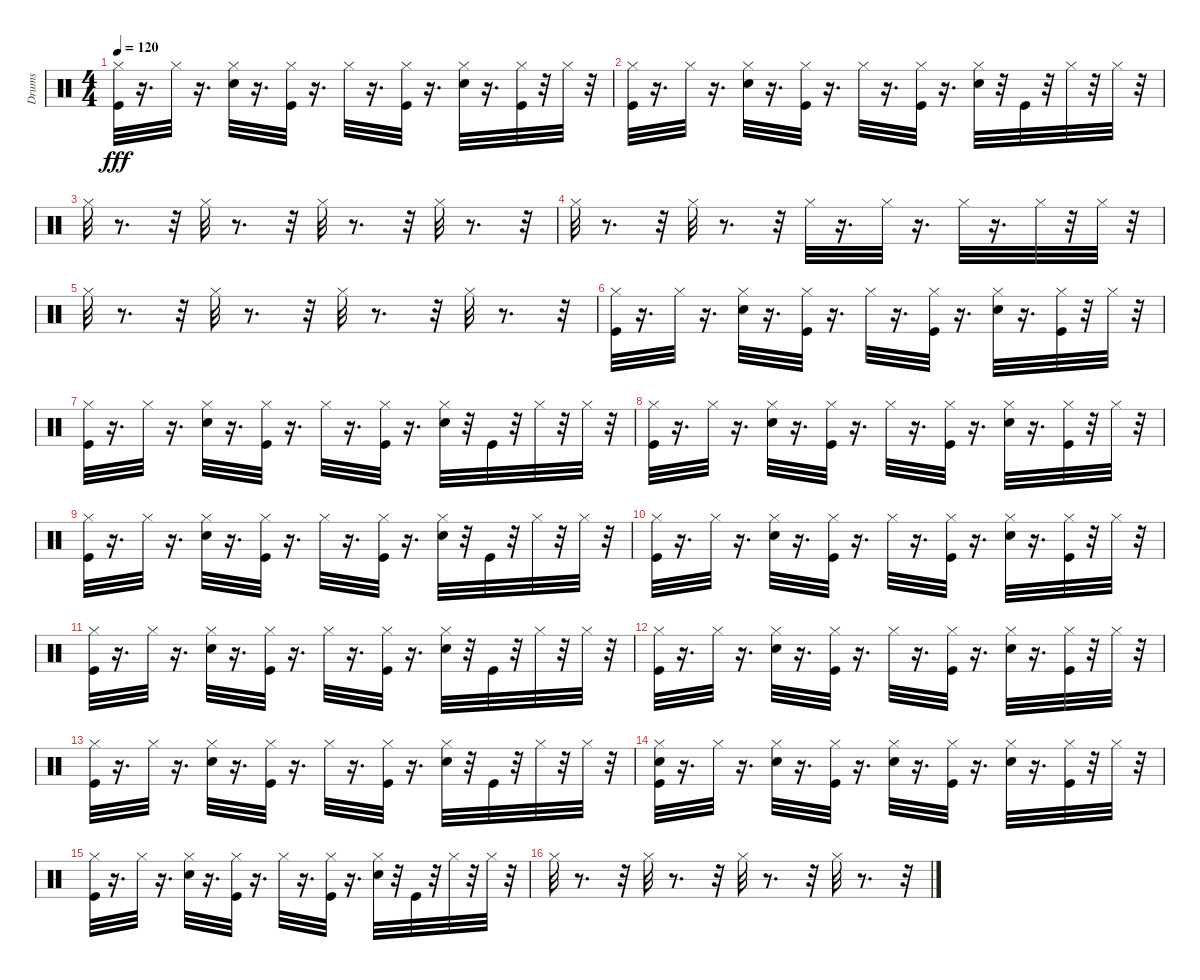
\track ("Drums" "Drums") {solo instrument percussion}
\staff {score}
\articulation defaults
\ts (4 4)
\tempo 120
\clef neutral
\ks c
("Kick (hit)" "Hi-Hat (closed)").32{dy fff} r.16{d} "Hi-Hat (closed)".32 r.16{d} ("Snare (hit) 2" "Hi-Hat (closed)").32 r.16{d} ("Kick (hit)" "Hi-Hat (closed)").32 r.16{d} "Hi-Hat (closed)".32 r.16{d} ("Kick (hit)" "Hi-Hat (closed)").32 r.16{d} ("Snare (hit) 2" "Hi-Hat (closed)").32 r.16{d} ("Kick (hit)" "Hi-Hat (closed)").32 r.32 "Hi-Hat (closed)".32 r.32 |
("Kick (hit)" "Hi-Hat (closed)").32 r.16{d} "Hi-Hat (closed)".32 r.16{d} ("Snare (hit) 2" "Hi-Hat (closed)").32 r.16{d} ("Kick (hit)" "Hi-Hat (closed)").32 r.16{d} "Hi-Hat (closed)".32 r.16{d} ("Kick (hit)" "Hi-Hat (closed)").32 r.16{d} ("Snare (hit) 2" "Hi-Hat (closed)").32 r.32 "Kick (hit)".32 r.32 "Hi-Hat (closed)".32 r.32 "Hi-Hat (closed)".32 r.32 |
"Hi-Hat (closed)".32 r.8{d} r.32 "Hi-Hat (closed)".32 r.8{d} r.32 "Hi-Hat (closed)".32 r.8{d} r.32 "Hi-Hat (closed)".32 r.8{d} r.32 |
"Hi-Hat (closed)".32 r.8{d} r.32 "Hi-Hat (closed)".32 r.8{d} r.32 "Hi-Hat (closed)".32 r.16{d} "Hi-Hat (closed)".32 r.16{d} "Hi-Hat (closed)".32 r.16{d} "Hi-Hat (closed)".32 r.32 "Hi-Hat (closed)".32 r.32 |
"Hi-Hat (closed)".32 r.8{d} r.32 "Hi-Hat (closed)".32 r.8{d} r.32 "Hi-Hat (closed)".32 r.8{d} r.32 "Hi-Hat (closed)".32 r.8{d} r.32 |
("Kick (hit)" "Hi-Hat (closed)").32 r.16{d} "Hi-Hat (closed)".32 r.16{d} ("Snare (hit) 2" "Hi-Hat (closed)").32 r.16{d} ("Kick (hit)" "Hi-Hat (closed)").32 r.16{d} "Hi-Hat (closed)".32 r.16{d} ("Kick (hit)" "Hi-Hat (closed)").32 r.16{d} ("Snare (hit) 2" "Hi-Hat (closed)").32 r.16{d} ("Kick (hit)" "Hi-Hat (closed)").32 r.32 "Hi-Hat (closed)".32 r.32 |
("Kick (hit)" "Hi-Hat (closed)").32 r.16{d} "Hi-Hat (closed)".32 r.16{d} ("Snare (hit) 2" "Hi-Hat (closed)").32 r.16{d} ("Kick (hit)" "Hi-Hat (closed)").32 r.16{d} "Hi-Hat (closed)".32 r.16{d} ("Kick (hit)" "Hi-Hat (closed)").32 r.16{d} ("Snare (hit) 2" "Hi-Hat (closed)").32 r.32 "Kick (hit)".32 r.32 "Hi-Hat (closed)".32 r.32 "Hi-Hat (closed)".32 r.32 |
("Kick (hit)" "Hi-Hat (closed)").32 r.16{d} "Hi-Hat (closed)".32 r.16{d} ("Snare (hit) 2" "Hi-Hat (closed)").32 r.16{d} ("Kick (hit)" "Hi-Hat (closed)").32 r.16{d} "Hi-Hat (closed)".32 r.16{d} ("Kick (hit)" "Hi-Hat (closed)").32 r.16{d} ("Snare (hit) 2" "Hi-Hat (closed)").32 r.16{d} ("Kick (hit)" "Hi-Hat (closed)").32 r.32 "Hi-Hat (closed)".32 r.32 |
("Kick (hit)" "Hi-Hat (closed)").32 r.16{d} "Hi-Hat (closed)".32 r.16{d} ("Snare (hit) 2" "Hi-Hat (closed)").32 r.16{d} ("Kick (hit)" "Hi-Hat (closed)").32 r.16{d} "Hi-Hat (closed)".32 r.16{d} ("Kick (hit)" "Hi-Hat (closed)").32 r.16{d} ("Snare (hit) 2" "Hi-Hat (closed)").32 r.32 "Kick (hit)".32 r.32 "Hi-Hat (closed)".32 r.32 "Hi-Hat (closed)".32 r.32 |
("Kick (hit)" "Hi-Hat (closed)").32 r.16{d} "Hi-Hat (closed)".32 r.16{d} ("Snare (hit) 2" "Hi-Hat (closed)").32 r.16{d} ("Kick (hit)" "Hi-Hat (closed)").32 r.16{d} "Hi-Hat (closed)".32 r.16{d} ("Kick (hit)" "Hi-Hat (closed)").32 r.16{d} ("Snare (hit) 2" "Hi-Hat (closed)").32 r.16{d} ("Kick (hit)" "Hi-Hat (closed)").32 r.32 "Hi-Hat (closed)".32 r.32 |
("Kick (hit)" "Hi-Hat (closed)").32 r.16{d} "Hi-Hat (closed)".32 r.16{d} ("Snare (hit) 2" "Hi-Hat (closed)").32 r.16{d} ("Kick (hit)" "Hi-Hat (closed)").32 r.16{d} "Hi-Hat (closed)".32 r.16{d} ("Kick (hit)" "Hi-Hat (closed)").32 r.16{d} ("Snare (hit) 2" "Hi-Hat (closed)").32 r.32 "Kick (hit)".32 r.32 "Hi-Hat (closed)".32 r.32 "Hi-Hat (closed)".32 r.32 |
("Kick (hit)" "Hi-Hat (closed)").32 r.16{d} "Hi-Hat (closed)".32 r.16{d} ("Snare (hit) 2" "Hi-Hat (closed)").32 r.16{d} ("Kick (hit)" "Hi-Hat (closed)").32 r.16{d} "Hi-Hat (closed)".32 r.16{d} ("Kick (hit)" "Hi-Hat (closed)").32 r.16{d} ("Snare (hit) 2" "Hi-Hat (closed)").32 r.16{d} ("Kick (hit)" "Hi-Hat (closed)").32 r.32 "Hi-Hat (closed)".32 r.32 |
("Kick (hit)" "Hi-Hat (closed)").32 r.16{d} "Hi-Hat (closed)".32 r.16{d} ("Snare (hit) 2" "Hi-Hat (closed)").32 r.16{d} ("Kick (hit)" "Hi-Hat (closed)").32 r.16{d} "Hi-Hat (closed)".32 r.16{d} ("Kick (hit)" "Hi-Hat (closed)").32 r.16{d} ("Snare (hit) 2" "Hi-Hat (closed)").32 r.32 "Kick (hit)".32 r.32 "Hi-Hat (closed)".32 r.32 "Hi-Hat (closed)".32 r.32 |
("Kick (hit)" "Snare (hit) 2" "Hi-Hat (closed)").32 r.16{d} "Hi-Hat (closed)".32 r.16{d} ("Snare (hit) 2" "Hi-Hat (closed)").32 r.16{d} ("Kick (hit)" "Hi-Hat (closed)").32 r.16{d} ("Snare (hit) 2" "Hi-Hat (closed)").32 r.16{d} ("Kick (hit)" "Hi-Hat (closed)").32 r.16{d} ("Snare (hit) 2" "Hi-Hat (closed)").32 r.16{d} ("Kick (hit)" "Hi-Hat (closed)").32 r.32 "Hi-Hat (closed)".32 r.32 |
("Kick (hit)" "Hi-Hat (closed)").32 r.16{d} "Hi-Hat (closed)".32 r.16{d} ("Snare (hit) 2" "Hi-Hat (closed)").32 r.16{d} ("Kick (hit)" "Hi-Hat (closed)").32 r.16{d} "Hi-Hat (closed)".32 r.16{d} ("Kick (hit)" "Hi-Hat (closed)").32 r.16{d} ("Snare (hit) 2" "Hi-Hat (closed)").32 r.32 "Kick (hit)".32 r.32 "Hi-Hat (closed)".32 r.32 "Hi-Hat (closed)".32 r.32 |
"Hi-Hat (closed)".32 r.8{d} r.32 "Hi-Hat (closed)".32 r.8{d} r.32 "Hi-Hat (closed)".32 r.8{d} r.32 "Hi-Hat (closed)".32 r.8{d} r.32
